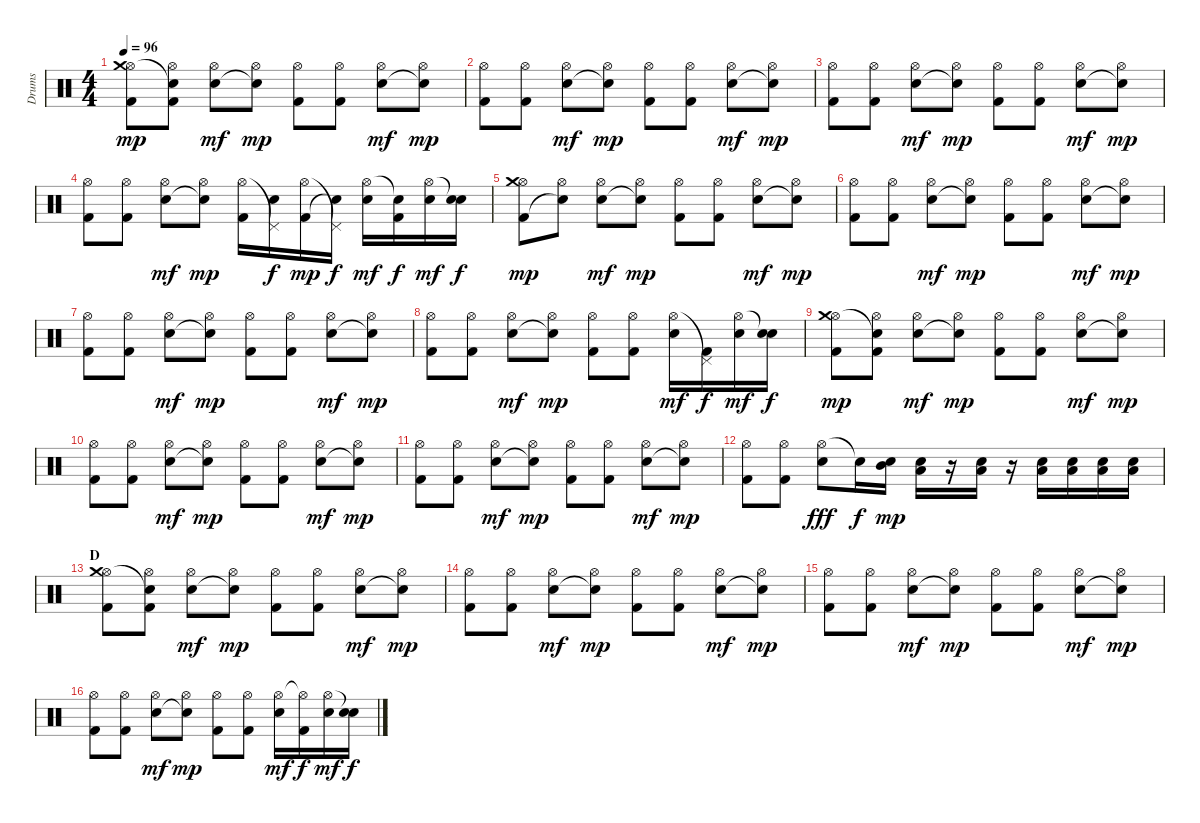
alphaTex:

\track ("Drums" "Drums") {instrument percussion}
\staff {score}
\articulation defaults
\ts (4 4)
\tempo 96
\clef neutral
\ks c
("Hi-Hat (open)" "Kick (hit) 2" "Crash medium (hit)").8{dy mp} ("Hi-Hat (open)" "Kick (hit) 2" "Snare (hit)"{t}).8 ("Hi-Hat (open)" "Electric Snare (hit)").8{dy mf} ("Hi-Hat (open)" "Snare (hit)"{t}).8{dy mp} ("Hi-Hat (open)" "Kick (hit) 2").8 ("Hi-Hat (open)" "Kick (hit) 2").8 ("Hi-Hat (open)" "Electric Snare (hit)").8{dy mf} ("Hi-Hat (open)" "Snare (hit)"{t}).8{dy mp} |
("Hi-Hat (open)" "Kick (hit) 2").8 ("Hi-Hat (open)" "Kick (hit) 2").8 ("Hi-Hat (open)" "Electric Snare (hit)").8{dy mf} ("Hi-Hat (open)" "Snare (hit)"{t}).8{dy mp} ("Hi-Hat (open)" "Kick (hit) 2").8 ("Hi-Hat (open)" "Kick (hit) 2").8 ("Hi-Hat (open)" "Electric Snare (hit)").8{dy mf} ("Hi-Hat (open)" "Snare (hit)"{t}).8{dy mp} |
("Hi-Hat (open)" "Kick (hit) 2").8 ("Hi-Hat (open)" "Kick (hit) 2").8 ("Hi-Hat (open)" "Electric Snare (hit)").8{dy mf} ("Hi-Hat (open)" "Snare (hit)"{t}).8{dy mp} ("Hi-Hat (open)" "Kick (hit) 2").8 ("Hi-Hat (open)" "Kick (hit) 2").8 ("Hi-Hat (open)" "Electric Snare (hit)").8{dy mf} ("Hi-Hat (open)" "Snare (hit)"{t}).8{dy mp} |
("Hi-Hat (open)" "Kick (hit) 2").8 ("Hi-Hat (open)" "Kick (hit) 2").8 ("Hi-Hat (open)" "Electric Snare (hit)").8{dy mf} ("Hi-Hat (open)" "Snare (hit)"{t}).8{dy mp} ("Hi-Hat (open)" "Kick (hit) 2").16 ("Pedal Hi-Hat (hit)"{t} "Electric Snare (hit)").16{dy f} ("Hi-Hat (open)" "Kick (hit) 2").16{dy mp} ("Pedal Hi-Hat (hit)"{t} "Snare (hit)"{t}).16{dy f} ("Hi-Hat (open)" "Electric Snare (hit)").16{dy mf} ("Snare (hit)"{t} "Kick (hit) 2").16{dy f} ("Hi-Hat (open)" "Electric Snare (hit)").16{dy mf} ("Snare (hit)"{t} "Electric Snare (hit)").16{dy f} |
("Hi-Hat (open)" "Kick (hit) 2" "Crash medium (hit)").8{dy mp} ("Hi-Hat (open)" "Snare (hit)"{t}).8 ("Hi-Hat (open)" "Electric Snare (hit)").8{dy mf} ("Hi-Hat (open)" "Snare (hit)"{t}).8{dy mp} ("Hi-Hat (open)" "Kick (hit) 2").8 ("Hi-Hat (open)" "Kick (hit) 2").8 ("Hi-Hat (open)" "Electric Snare (hit)").8{dy mf} ("Hi-Hat (open)" "Snare (hit)"{t}).8{dy mp} |
("Hi-Hat (open)" "Kick (hit) 2").8 ("Hi-Hat (open)" "Kick (hit) 2").8 ("Hi-Hat (open)" "Electric Snare (hit)").8{dy mf} ("Hi-Hat (open)" "Snare (hit)"{t}).8{dy mp} ("Hi-Hat (open)" "Kick (hit) 2").8 ("Hi-Hat (open)" "Kick (hit) 2").8 ("Hi-Hat (open)" "Electric Snare (hit)").8{dy mf} ("Hi-Hat (open)" "Snare (hit)"{t}).8{dy mp} |
("Hi-Hat (open)" "Kick (hit) 2").8 ("Hi-Hat (open)" "Kick (hit) 2").8 ("Hi-Hat (open)" "Electric Snare (hit)").8{dy mf} ("Hi-Hat (open)" "Snare (hit)"{t}).8{dy mp} ("Hi-Hat (open)" "Kick (hit) 2").8 ("Hi-Hat (open)" "Kick (hit) 2").8 ("Hi-Hat (open)" "Electric Snare (hit)").8{dy mf} ("Hi-Hat (open)" "Snare (hit)"{t}).8{dy mp} |
("Hi-Hat (open)" "Kick (hit) 2").8 ("Hi-Hat (open)" "Kick (hit) 2").8 ("Hi-Hat (open)" "Electric Snare (hit)").8{dy mf} ("Hi-Hat (open)" "Snare (hit)"{t}).8{dy mp} ("Hi-Hat (open)" "Kick (hit) 2").8 ("Hi-Hat (open)" "Kick (hit) 2").8 ("Hi-Hat (open)" "Electric Snare (hit)").16{dy mf} ("Pedal Hi-Hat (hit)"{t} "Kick (hit) 2").16{dy f} ("Hi-Hat (open)" "Electric Snare (hit)").16{dy mf} ("Snare (hit)"{t} "Electric Snare (hit)").16{dy f} |
("Hi-Hat (open)" "Kick (hit) 2" "Crash medium (hit)").8{dy mp} ("Hi-Hat (open)" "Kick (hit) 2" "Snare (hit)"{t}).8 ("Hi-Hat (open)" "Electric Snare (hit)").8{dy mf} ("Hi-Hat (open)" "Snare (hit)"{t}).8{dy mp} ("Hi-Hat (open)" "Kick (hit) 2").8 ("Hi-Hat (open)" "Kick (hit) 2").8 ("Hi-Hat (open)" "Electric Snare (hit)").8{dy mf} ("Hi-Hat (open)" "Snare (hit)"{t}).8{dy mp} |
("Hi-Hat (open)" "Kick (hit) 2").8 ("Hi-Hat (open)" "Kick (hit) 2").8 ("Hi-Hat (open)" "Electric Snare (hit)").8{dy mf} ("Hi-Hat (open)" "Snare (hit)"{t}).8{dy mp} ("Hi-Hat (open)" "Kick (hit) 2").8 ("Hi-Hat (open)" "Kick (hit) 2").8 ("Hi-Hat (open)" "Electric Snare (hit)").8{dy mf} ("Hi-Hat (open)" "Snare (hit)"{t}).8{dy mp} |
("Hi-Hat (open)" "Kick (hit) 2").8 ("Hi-Hat (open)" "Kick (hit) 2").8 ("Hi-Hat (open)" "Electric Snare (hit)").8{dy mf} ("Hi-Hat (open)" "Snare (hit)"{t}).8{dy mp} ("Hi-Hat (open)" "Kick (hit) 2").8 ("Hi-Hat (open)" "Kick (hit) 2").8 ("Hi-Hat (open)" "Electric Snare (hit)").8{dy mf} ("Hi-Hat (open)" "Snare (hit)"{t}).8{dy mp} |
("Hi-Hat (open)" "Kick (hit) 2").8 ("Hi-Hat (open)" "Kick (hit) 2").8 ("Hi-Hat (open)" "Electric Snare (hit)").8{dy fff} "Electric Snare (hit)"{t}.16{dy f} ("Electric Snare (hit)" "Mid Tom (hit)").16{dy mp} ("Electric Snare (hit)" "Low Tom (hit)").16 r.16 ("Electric Snare (hit)" "Low Tom (hit)").16 r.16 ("Electric Snare (hit)" "Low Tom (hit)").16 ("Electric Snare (hit)" "Low Tom (hit)").16 ("Electric Snare (hit)" "Low Tom (hit)").16 ("Electric Snare (hit)" "Low Tom (hit)").16 |
\section ("" "D")
("Hi-Hat (open)" "Kick (hit) 2" "Crash medium (hit)").8 ("Hi-Hat (open)" "Kick (hit) 2" "Snare (hit)"{t}).8 ("Hi-Hat (open)" "Electric Snare (hit)").8{dy mf} ("Hi-Hat (open)" "Snare (hit)"{t}).8{dy mp} ("Hi-Hat (open)" "Kick (hit) 2").8 ("Hi-Hat (open)" "Kick (hit) 2").8 ("Hi-Hat (open)" "Electric Snare (hit)").8{dy mf} ("Hi-Hat (open)" "Snare (hit)"{t}).8{dy mp} |
("Hi-Hat (open)" "Kick (hit) 2").8 ("Hi-Hat (open)" "Kick (hit) 2").8 ("Hi-Hat (open)" "Electric Snare (hit)").8{dy mf} ("Hi-Hat (open)" "Snare (hit)"{t}).8{dy mp} ("Hi-Hat (open)" "Kick (hit) 2").8 ("Hi-Hat (open)" "Kick (hit) 2").8 ("Hi-Hat (open)" "Electric Snare (hit)").8{dy mf} ("Hi-Hat (open)" "Snare (hit)"{t}).8{dy mp} |
("Hi-Hat (open)" "Kick (hit) 2").8 ("Hi-Hat (open)" "Kick (hit) 2").8 ("Hi-Hat (open)" "Electric Snare (hit)").8{dy mf} ("Hi-Hat (open)" "Snare (hit)"{t}).8{dy mp} ("Hi-Hat (open)" "Kick (hit) 2").8 ("Hi-Hat (open)" "Kick (hit) 2").8 ("Hi-Hat (open)" "Electric Snare (hit)").8{dy mf} ("Hi-Hat (open)" "Snare (hit)"{t}).8{dy mp} |
("Hi-Hat (open)" "Kick (hit) 2").8 ("Hi-Hat (open)" "Kick (hit) 2").8 ("Hi-Hat (open)" "Electric Snare (hit)").8{dy mf} ("Hi-Hat (open)" "Snare (hit)"{t}).8{dy mp} ("Hi-Hat (open)" "Kick (hit) 2").8 ("Hi-Hat (open)" "Kick (hit) 2").8 ("Hi-Hat (open)" "Electric Snare (hit)").16{dy mf} ("Hi-Hat (open)"{t} "Kick (hit) 2").16{dy f} ("Hi-Hat (open)" "Electric Snare (hit)").16{dy mf} ("Snare (hit)"{t} "Electric Snare (hit)").16{dy f}
